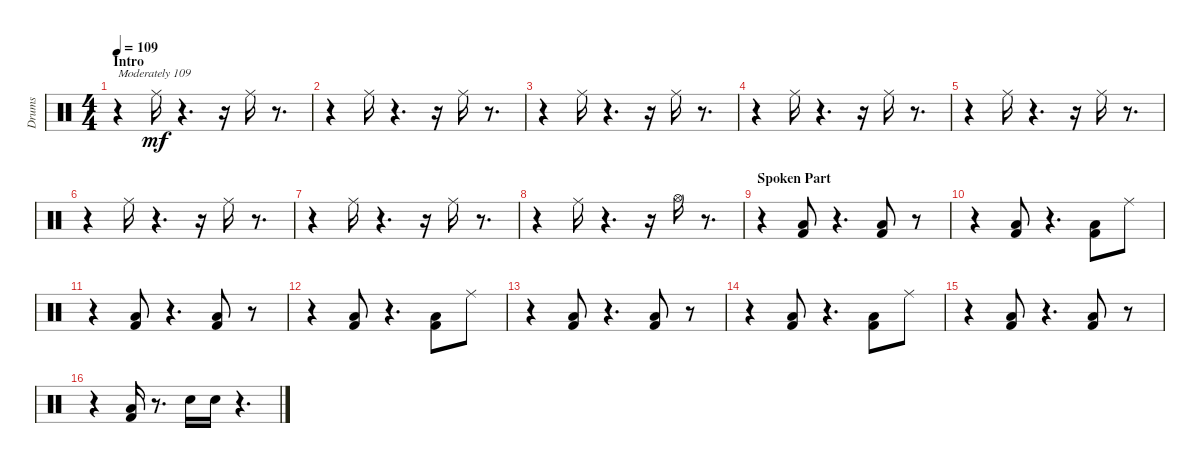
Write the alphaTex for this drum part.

\track ("Drums" "Drums") {instrument percussion}
\staff {score}
\articulation defaults
\ts (4 4)
\section ("" "Intro")
\tempo 109
\clef neutral
\ks c
r.4{txt "Moderately 109" dy mf} "Ride (middle)".16 r.4{d} r.16 "Ride (middle)".16 r.8{d} |
r.4 "Ride (middle)".16 r.4{d} r.16 "Ride (middle)".16 r.8{d} |
r.4 "Ride (middle)".16 r.4{d} r.16 "Ride (middle)".16 r.8{d} |
r.4 "Ride (middle)".16 r.4{d} r.16 "Ride (middle)".16 r.8{d} |
r.4 "Ride (middle)".16 r.4{d} r.16 "Ride (middle)".16 r.8{d} |
r.4 "Ride (middle)".16 r.4{d} r.16 "Ride (middle)".16 r.8{d} |
r.4 "Ride (middle)".16 r.4{d} r.16 "Ride (middle)".16 r.8{d} |
r.4 "Ride (middle)".16 r.4{d} r.16 "Hi-Hat (open)".16 r.8{d} |
\section ("" "Spoken Part")
r.4 ("Low Floor Tom (hit)" "Kick (hit) 2").8 r.4{d} ("Low Floor Tom (hit)" "Kick (hit) 2").8 r.8 |
r.4 ("Low Floor Tom (hit)" "Kick (hit) 2").8 r.4{d} ("Low Floor Tom (hit)" "Kick (hit) 2").8 "Ride (middle)".8 |
r.4 ("Low Floor Tom (hit)" "Kick (hit) 2").8 r.4{d} ("Low Floor Tom (hit)" "Kick (hit) 2").8 r.8 |
r.4 ("Low Floor Tom (hit)" "Kick (hit) 2").8 r.4{d} ("Low Floor Tom (hit)" "Kick (hit) 2").8 "Ride (middle)".8 |
r.4 ("Low Floor Tom (hit)" "Kick (hit) 2").8 r.4{d} ("Low Floor Tom (hit)" "Kick (hit) 2").8 r.8 |
r.4 ("Low Floor Tom (hit)" "Kick (hit) 2").8 r.4{d} ("Low Floor Tom (hit)" "Kick (hit) 2").8 "Ride (middle)".8 |
r.4 ("Low Floor Tom (hit)" "Kick (hit) 2").8 r.4{d} ("Low Floor Tom (hit)" "Kick (hit) 2").8 r.8 |
r.4 ("Low Floor Tom (hit)" "Kick (hit) 2").16 r.8{d} "Snare (hit) 2".16 "Snare (hit) 2".16 r.4{d}
